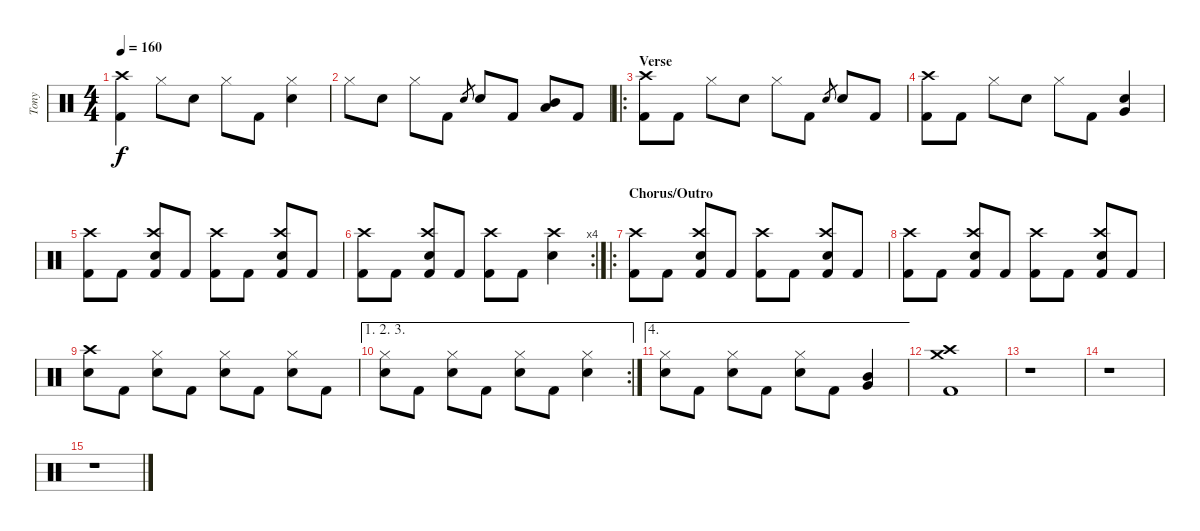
\track ("Tony" "Tony") {instrument percussion}
\staff {score}
\articulation defaults
\ts (4 4)
\tempo 160
\clef neutral
\ks c
("Kick (hit) 2" "Crash high (hit)").4{dy f} "Hi-Hat (closed)".8 "Snare (hit) 2".8 "Hi-Hat (closed)".8 "Kick (hit) 2".8 ("Snare (hit) 2" "Hi-Hat (closed)").4 |
"Hi-Hat (closed)".8 "Snare (hit) 2".8 "Hi-Hat (closed)".8 "Kick (hit) 2".8 "Snare (hit) 2".8{gr} "Snare (hit) 2".8 "Kick (hit) 2".8 ("Mid Tom (hit)" "Low Tom (hit)").8 "Kick (hit) 2".8 |
\ro
\section ("" "Verse")
("Kick (hit) 2" "Crash high (hit)").8 "Kick (hit) 2".8 "Hi-Hat (closed)".8 "Snare (hit) 2".8 "Hi-Hat (closed)".8 "Kick (hit) 2".8 "Snare (hit) 2".8{gr} "Snare (hit) 2".8 "Kick (hit) 2".8 |
("Kick (hit) 2" "Crash high (hit)").8 "Kick (hit) 2".8 "Hi-Hat (closed)".8 "Snare (hit) 2".8 "Hi-Hat (closed)".8 "Kick (hit) 2".8 ("Snare (hit) 2" "Very Low Tom (hit)").4 |
("Kick (hit) 2" "Crash high (hit)").8 "Kick (hit) 2".8 ("Kick (hit) 2" "Crash high (hit)" "Snare (hit) 2").8 "Kick (hit) 2".8 ("Kick (hit) 2" "Crash high (hit)").8 "Kick (hit) 2".8 ("Kick (hit) 2" "Crash high (hit)" "Snare (hit) 2").8 "Kick (hit) 2".8 |
\rc 4
("Kick (hit) 2" "Crash high (hit)").8 "Kick (hit) 2".8 ("Kick (hit) 2" "Crash high (hit)" "Snare (hit) 2").8 "Kick (hit) 2".8 ("Kick (hit) 2" "Crash high (hit)").8 "Kick (hit) 2".8 ("Crash high (hit)" "Snare (hit) 2").4 |
\ro
\section ("" "Chorus/Outro")
("Kick (hit) 2" "Crash high (hit)").8 "Kick (hit) 2".8 ("Kick (hit) 2" "Crash high (hit)" "Snare (hit) 2").8 "Kick (hit) 2".8 ("Kick (hit) 2" "Crash high (hit)").8 "Kick (hit) 2".8 ("Kick (hit) 2" "Crash high (hit)" "Snare (hit) 2").8 "Kick (hit) 2".8 |
("Kick (hit) 2" "Crash high (hit)").8 "Kick (hit) 2".8 ("Kick (hit) 2" "Crash high (hit)" "Snare (hit) 2").8 "Kick (hit) 2".8 ("Kick (hit) 2" "Crash high (hit)").8 "Kick (hit) 2".8 ("Kick (hit) 2" "Crash high (hit)" "Snare (hit) 2").8 "Kick (hit) 2".8 |
("Crash high (hit)" "Snare (hit) 2").8 "Kick (hit) 2".8 ("Snare (hit) 2" "Hi-Hat (closed)").8 "Kick (hit) 2".8 ("Snare (hit) 2" "Hi-Hat (closed)").8 "Kick (hit) 2".8 ("Snare (hit) 2" "Hi-Hat (closed)").8 "Kick (hit) 2".8 |
\ae (1 2 3)
\rc 2
("Snare (hit) 2" "Hi-Hat (closed)").8 "Kick (hit) 2".8 ("Snare (hit) 2" "Hi-Hat (closed)").8 "Kick (hit) 2".8 ("Snare (hit) 2" "Hi-Hat (closed)").8 "Kick (hit) 2".8 ("Snare (hit) 2" "Hi-Hat (closed)").4 |
\ae 4
("Snare (hit) 2" "Hi-Hat (closed)").8 "Kick (hit) 2".8 ("Snare (hit) 2" "Hi-Hat (closed)").8 "Kick (hit) 2".8 ("Snare (hit) 2" "Hi-Hat (closed)").8 "Kick (hit) 2".8 ("Mid Tom (hit)" "Very Low Tom (hit)").4 |
("Kick (hit) 2" "Crash high (hit)" "Crash medium (hit)").1 |
r.1 |
r.1 |
r.1
